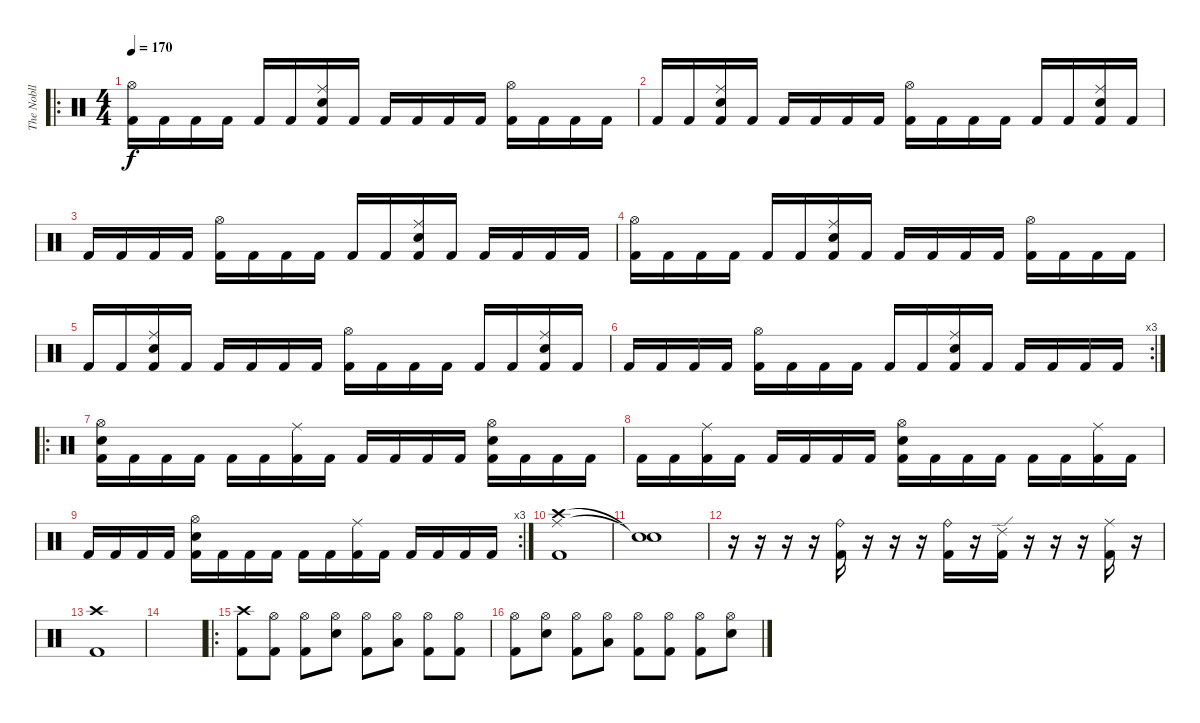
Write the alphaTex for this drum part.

\track ("The Nobll" "The Nobll") {instrument percussion}
\staff {score}
\articulation defaults
\ro
\ts (4 4)
\tempo 170
\clef neutral
\ks c
("Hi-Hat (open)" "Kick (hit) 2").16{dy f} "Kick (hit) 2".16 "Kick (hit) 2".16 "Kick (hit) 2".16 "Kick (hit) 2".16 "Kick (hit) 2".16 ("Ride (middle)" "Snare (hit) 2" "Kick (hit) 2").16 "Kick (hit) 2".16 "Kick (hit) 2".16 "Kick (hit) 2".16 "Kick (hit) 2".16 "Kick (hit) 2".16 ("Hi-Hat (open)" "Kick (hit) 2").16 "Kick (hit) 2".16 "Kick (hit) 2".16 "Kick (hit) 2".16 |
"Kick (hit) 2".16 "Kick (hit) 2".16 ("Ride (middle)" "Snare (hit) 2" "Kick (hit) 2").16 "Kick (hit) 2".16 "Kick (hit) 2".16 "Kick (hit) 2".16 "Kick (hit) 2".16 "Kick (hit) 2".16 ("Hi-Hat (open)" "Kick (hit) 2").16 "Kick (hit) 2".16 "Kick (hit) 2".16 "Kick (hit) 2".16 "Kick (hit) 2".16 "Kick (hit) 2".16 ("Ride (middle)" "Snare (hit) 2" "Kick (hit) 2").16 "Kick (hit) 2".16 |
"Kick (hit) 2".16 "Kick (hit) 2".16 "Kick (hit) 2".16 "Kick (hit) 2".16 ("Hi-Hat (open)" "Kick (hit) 2").16 "Kick (hit) 2".16 "Kick (hit) 2".16 "Kick (hit) 2".16 "Kick (hit) 2".16 "Kick (hit) 2".16 ("Ride (middle)" "Snare (hit) 2" "Kick (hit) 2").16 "Kick (hit) 2".16 "Kick (hit) 2".16 "Kick (hit) 2".16 "Kick (hit) 2".16 "Kick (hit) 2".16 |
("Hi-Hat (open)" "Kick (hit) 2").16 "Kick (hit) 2".16 "Kick (hit) 2".16 "Kick (hit) 2".16 "Kick (hit) 2".16 "Kick (hit) 2".16 ("Ride (middle)" "Snare (hit) 2" "Kick (hit) 2").16 "Kick (hit) 2".16 "Kick (hit) 2".16 "Kick (hit) 2".16 "Kick (hit) 2".16 "Kick (hit) 2".16 ("Hi-Hat (open)" "Kick (hit) 2").16 "Kick (hit) 2".16 "Kick (hit) 2".16 "Kick (hit) 2".16 |
"Kick (hit) 2".16 "Kick (hit) 2".16 ("Ride (middle)" "Snare (hit) 2" "Kick (hit) 2").16 "Kick (hit) 2".16 "Kick (hit) 2".16 "Kick (hit) 2".16 "Kick (hit) 2".16 "Kick (hit) 2".16 ("Hi-Hat (open)" "Kick (hit) 2").16 "Kick (hit) 2".16 "Kick (hit) 2".16 "Kick (hit) 2".16 "Kick (hit) 2".16 "Kick (hit) 2".16 ("Ride (middle)" "Snare (hit) 2" "Kick (hit) 2").16 "Kick (hit) 2".16 |
\rc 3 "Kick (hit) 2".16 "Kick (hit) 2".16 "Kick (hit) 2".16 "Kick (hit) 2".16
("Hi-Hat (open)" "Kick (hit) 2").16 "Kick (hit) 2".16 "Kick (hit) 2".16 "Kick (hit) 2".16 "Kick (hit) 2".16 "Kick (hit) 2".16 ("Ride (middle)" "Snare (hit) 2" "Kick (hit) 2").16 "Kick (hit) 2".16 "Kick (hit) 2".16 "Kick (hit) 2".16 "Kick (hit) 2".16 "Kick (hit) 2".16 |
\ro
("Hi-Hat (open)" "Snare (hit) 2" "Kick (hit) 2").16 "Kick (hit) 2".16 "Kick (hit) 2".16 "Kick (hit) 2".16 "Kick (hit) 2".16 "Kick (hit) 2".16 ("Ride (middle)" "Kick (hit) 2").16 "Kick (hit) 2".16 "Kick (hit) 2".16 "Kick (hit) 2".16 "Kick (hit) 2".16 "Kick (hit) 2".16 ("Hi-Hat (open)" "Snare (hit) 2" "Kick (hit) 2").16 "Kick (hit) 2".16 "Kick (hit) 2".16 "Kick (hit) 2".16 |
"Kick (hit) 2".16 "Kick (hit) 2".16 ("Ride (middle)" "Kick (hit) 2").16 "Kick (hit) 2".16 "Kick (hit) 2".16 "Kick (hit) 2".16 "Kick (hit) 2".16 "Kick (hit) 2".16 ("Hi-Hat (open)" "Snare (hit) 2" "Kick (hit) 2").16 "Kick (hit) 2".16 "Kick (hit) 2".16 "Kick (hit) 2".16 "Kick (hit) 2".16 "Kick (hit) 2".16 ("Ride (middle)" "Kick (hit) 2").16 "Kick (hit) 2".16 |
\rc 3 "Kick (hit) 2".16 "Kick (hit) 2".16 "Kick (hit) 2".16 "Kick (hit) 2".16
("Hi-Hat (open)" "Snare (hit) 2" "Kick (hit) 2").16 "Kick (hit) 2".16 "Kick (hit) 2".16 "Kick (hit) 2".16 "Kick (hit) 2".16 "Kick (hit) 2".16 ("Ride (middle)" "Kick (hit) 2").16 "Kick (hit) 2".16 "Kick (hit) 2".16 "Kick (hit) 2".16 "Kick (hit) 2".16 "Kick (hit) 2".16 |
("Crash high (hit)" "Ride (middle)" "Kick (hit) 2").1 |
("Snare (hit)"{t} "Snare (hit)"{t}).1 |
r.16 r.16 r.16 r.16 ("Ride (bell)" "Kick (hit) 2").16 r.16 r.16 r.16 ("Ride (bell)" "Kick (hit) 2").16 r.16 ("Ride (edge) 2" "Kick (hit) 2").16 r.16 r.16 r.16 ("Ride (middle)" "Kick (hit) 2").16 r.16 |
("Crash high (hit)" "Kick (hit) 2").1 |
|
\ro
("Crash high (hit)" "Kick (hit) 2").8 ("Hi-Hat (open)" "Kick (hit) 2").8 ("Hi-Hat (open)" "Kick (hit) 2").8 ("Hi-Hat (open)" "Snare (hit) 2").8 ("Hi-Hat (open)" "Kick (hit) 2").8 ("Hi-Hat (open)" "Low Tom (hit)").8 ("Hi-Hat (open)" "Kick (hit) 2").8 ("Hi-Hat (open)" "Kick (hit) 2").8 |
("Hi-Hat (open)" "Kick (hit) 2").8 ("Hi-Hat (open)" "Snare (hit) 2").8 ("Hi-Hat (open)" "Kick (hit) 2").8 ("Hi-Hat (open)" "Low Tom (hit)").8 ("Hi-Hat (open)" "Kick (hit) 2").8 ("Hi-Hat (open)" "Kick (hit) 2").8 ("Hi-Hat (open)" "Kick (hit) 2").8 ("Hi-Hat (open)" "Snare (hit) 2").8
